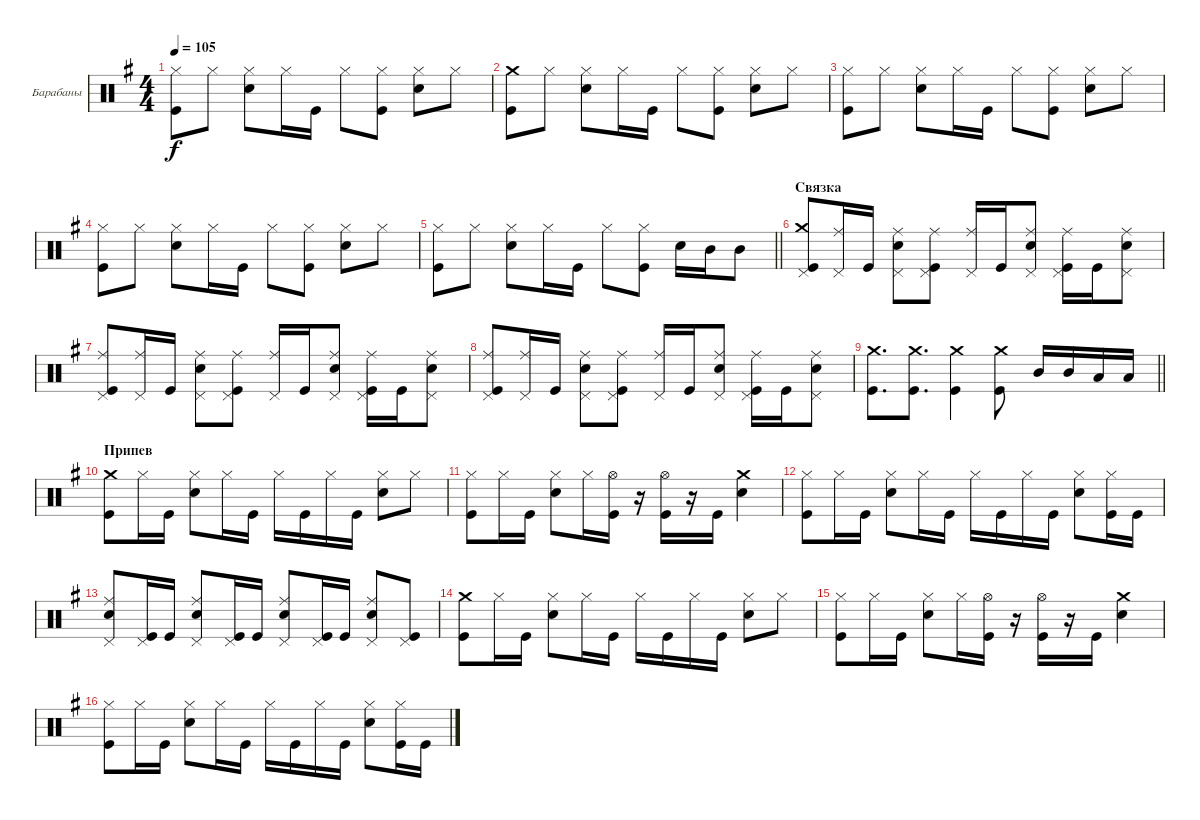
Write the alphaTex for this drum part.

\bracketExtendMode groupsimilarinstruments
\firstSystemTrackNameMode fullname
\otherSystemsTrackNameMode fullname
\firstSystemTrackNameOrientation horizontal
\otherSystemsTrackNameOrientation horizontal
\chordDiagramsInScore
\track ("Барабаны" "Drums") {instrument percussion}
\staff {score}
\articulation defaults
\ts (4 4)
\tempo 105
\clef neutral
\ks eminor
("Kick (hit)" "Hi-Hat (closed)").8{dy f} "Hi-Hat (closed)".8 ("Hi-Hat (closed)" "Snare (hit) 2").8 "Hi-Hat (closed)".16 "Kick (hit)".16 "Hi-Hat (closed)".8 ("Hi-Hat (closed)" "Kick (hit)").8 ("Hi-Hat (closed)" "Snare (hit) 2").8 "Hi-Hat (closed)".8 |
("Kick (hit)" "Crash medium (hit)").8 "Hi-Hat (closed)".8 ("Hi-Hat (closed)" "Snare (hit) 2").8 "Hi-Hat (closed)".16 "Kick (hit)".16 "Hi-Hat (closed)".8 ("Hi-Hat (closed)" "Kick (hit)").8 ("Hi-Hat (closed)" "Snare (hit) 2").8 "Hi-Hat (closed)".8 |
("Kick (hit)" "Hi-Hat (closed)").8 "Hi-Hat (closed)".8 ("Hi-Hat (closed)" "Snare (hit) 2").8 "Hi-Hat (closed)".16 "Kick (hit)".16 "Hi-Hat (closed)".8 ("Hi-Hat (closed)" "Kick (hit)").8 ("Hi-Hat (closed)" "Snare (hit) 2").8 "Hi-Hat (closed)".8 |
("Kick (hit)" "Hi-Hat (closed)").8 "Hi-Hat (closed)".8 ("Hi-Hat (closed)" "Snare (hit) 2").8 "Hi-Hat (closed)".16 "Kick (hit)".16 "Hi-Hat (closed)".8 ("Hi-Hat (closed)" "Kick (hit)").8 ("Hi-Hat (closed)" "Snare (hit) 2").8 "Hi-Hat (closed)".8 |
\barLineRight lightlight
("Kick (hit)" "Hi-Hat (closed)").8 "Hi-Hat (closed)".8 ("Hi-Hat (closed)" "Snare (hit) 2").8 "Hi-Hat (closed)".16 "Kick (hit)".16 "Hi-Hat (closed)".8 ("Hi-Hat (closed)" "Kick (hit)").8 "Snare (hit) 2".16 "Mid Tom (hit)".16 "Mid Tom (hit)".8 |
\section ("" "Связка")
("Kick (hit)" "Pedal Hi-Hat (hit)" "Crash medium (hit)").8 ("Pedal Hi-Hat (hit)" "Ride (middle)").16 "Kick (hit)".16 ("Pedal Hi-Hat (hit)" "Snare (hit) 2" "Ride (middle)").8 ("Pedal Hi-Hat (hit)" "Kick (hit)" "Ride (middle)").8 ("Pedal Hi-Hat (hit)" "Ride (middle)").16 "Kick (hit)".16 ("Snare (hit) 2" "Pedal Hi-Hat (hit)" "Ride (middle)").8 ("Pedal Hi-Hat (hit)" "Kick (hit)" "Ride (middle)").16 "Kick (hit)".16 ("Pedal Hi-Hat (hit)" "Snare (hit) 2" "Ride (middle)").8 |
("Kick (hit)" "Pedal Hi-Hat (hit)" "Ride (middle)").8 ("Pedal Hi-Hat (hit)" "Ride (middle)").16 "Kick (hit)".16 ("Pedal Hi-Hat (hit)" "Snare (hit) 2" "Ride (middle)").8 ("Pedal Hi-Hat (hit)" "Kick (hit)" "Ride (middle)").8 ("Pedal Hi-Hat (hit)" "Ride (middle)").16 "Kick (hit)".16 ("Snare (hit) 2" "Pedal Hi-Hat (hit)" "Ride (middle)").8 ("Pedal Hi-Hat (hit)" "Kick (hit)" "Ride (middle)").16 "Kick (hit)".16 ("Pedal Hi-Hat (hit)" "Snare (hit) 2" "Ride (middle)").8 |
("Kick (hit)" "Pedal Hi-Hat (hit)" "Ride (middle)").8 ("Pedal Hi-Hat (hit)" "Ride (middle)").16 "Kick (hit)".16 ("Pedal Hi-Hat (hit)" "Snare (hit) 2" "Ride (middle)").8 ("Pedal Hi-Hat (hit)" "Kick (hit)" "Ride (middle)").8 ("Pedal Hi-Hat (hit)" "Ride (middle)").16 "Kick (hit)".16 ("Snare (hit) 2" "Pedal Hi-Hat (hit)" "Ride (middle)").8 ("Pedal Hi-Hat (hit)" "Kick (hit)" "Ride (middle)").16 "Kick (hit)".16 ("Pedal Hi-Hat (hit)" "Snare (hit) 2" "Ride (middle)").8 |
\barLineRight lightlight
("Kick (hit)" "Crash medium (hit)").8{d} ("Kick (hit)" "Crash medium (hit)").8{d} ("Kick (hit)" "Crash medium (hit)").4 ("Kick (hit)" "Crash medium (hit)").8 "Mid Tom (hit)".16 "Mid Tom (hit)".16 "Low Tom (hit)".16 "Low Tom (hit)".16 |
\section ("" "Припев")
("Kick (hit)" "Crash medium (hit)").8 "Hi-Hat (closed)".16 "Kick (hit)".16 ("Snare (hit) 2" "Hi-Hat (closed)").8 "Hi-Hat (closed)".16 "Kick (hit)".16 "Hi-Hat (closed)".16 "Kick (hit)".16 "Hi-Hat (closed)".16 "Kick (hit)".16 ("Snare (hit) 2" "Hi-Hat (closed)").8 "Hi-Hat (closed)".8 |
("Kick (hit)" "Hi-Hat (closed)").8 "Hi-Hat (closed)".16 "Kick (hit)".16 ("Snare (hit) 2" "Hi-Hat (closed)").8 "Hi-Hat (closed)".16 ("Kick (hit)" "Hi-Hat (open)").16 r.16 ("Kick (hit)" "Hi-Hat (open)").16 r.16 "Kick (hit)".16 ("Snare (hit) 2" "Crash medium (hit)").4 |
("Kick (hit)" "Hi-Hat (closed)").8 "Hi-Hat (closed)".16 "Kick (hit)".16 ("Snare (hit) 2" "Hi-Hat (closed)").8 "Hi-Hat (closed)".16 "Kick (hit)".16 "Hi-Hat (closed)".16 "Kick (hit)".16 "Hi-Hat (closed)".16 "Kick (hit)".16 ("Snare (hit) 2" "Hi-Hat (closed)").8 ("Hi-Hat (closed)" "Kick (hit)").16 "Kick (hit)".16 |
("Snare (hit) 2" "Ride (middle)" "Pedal Hi-Hat (hit)").8 ("Kick (hit)" "Pedal Hi-Hat (hit)").16 "Kick (hit)".16 ("Snare (hit) 2" "Ride (middle)" "Pedal Hi-Hat (hit)").8 ("Kick (hit)" "Pedal Hi-Hat (hit)").16 "Kick (hit)".16 ("Snare (hit) 2" "Ride (middle)" "Pedal Hi-Hat (hit)").8 ("Kick (hit)" "Pedal Hi-Hat (hit)").16 "Kick (hit)".16 ("Snare (hit) 2" "Ride (middle)" "Pedal Hi-Hat (hit)").8 ("Pedal Hi-Hat (hit)" "Kick (hit)").8 |
("Kick (hit)" "Crash medium (hit)").8 "Hi-Hat (closed)".16 "Kick (hit)".16 ("Snare (hit) 2" "Hi-Hat (closed)").8 "Hi-Hat (closed)".16 "Kick (hit)".16 "Hi-Hat (closed)".16 "Kick (hit)".16 "Hi-Hat (closed)".16 "Kick (hit)".16 ("Snare (hit) 2" "Hi-Hat (closed)").8 "Hi-Hat (closed)".8 |
("Kick (hit)" "Hi-Hat (closed)").8 "Hi-Hat (closed)".16 "Kick (hit)".16 ("Snare (hit) 2" "Hi-Hat (closed)").8 "Hi-Hat (closed)".16 ("Kick (hit)" "Hi-Hat (open)").16 r.16 ("Kick (hit)" "Hi-Hat (open)").16 r.16 "Kick (hit)".16 ("Snare (hit) 2" "Crash medium (hit)").4 |
("Kick (hit)" "Hi-Hat (closed)").8 "Hi-Hat (closed)".16 "Kick (hit)".16 ("Snare (hit) 2" "Hi-Hat (closed)").8 "Hi-Hat (closed)".16 "Kick (hit)".16 "Hi-Hat (closed)".16 "Kick (hit)".16 "Hi-Hat (closed)".16 "Kick (hit)".16 ("Snare (hit) 2" "Hi-Hat (closed)").8 ("Hi-Hat (closed)" "Kick (hit)").16 "Kick (hit)".16
